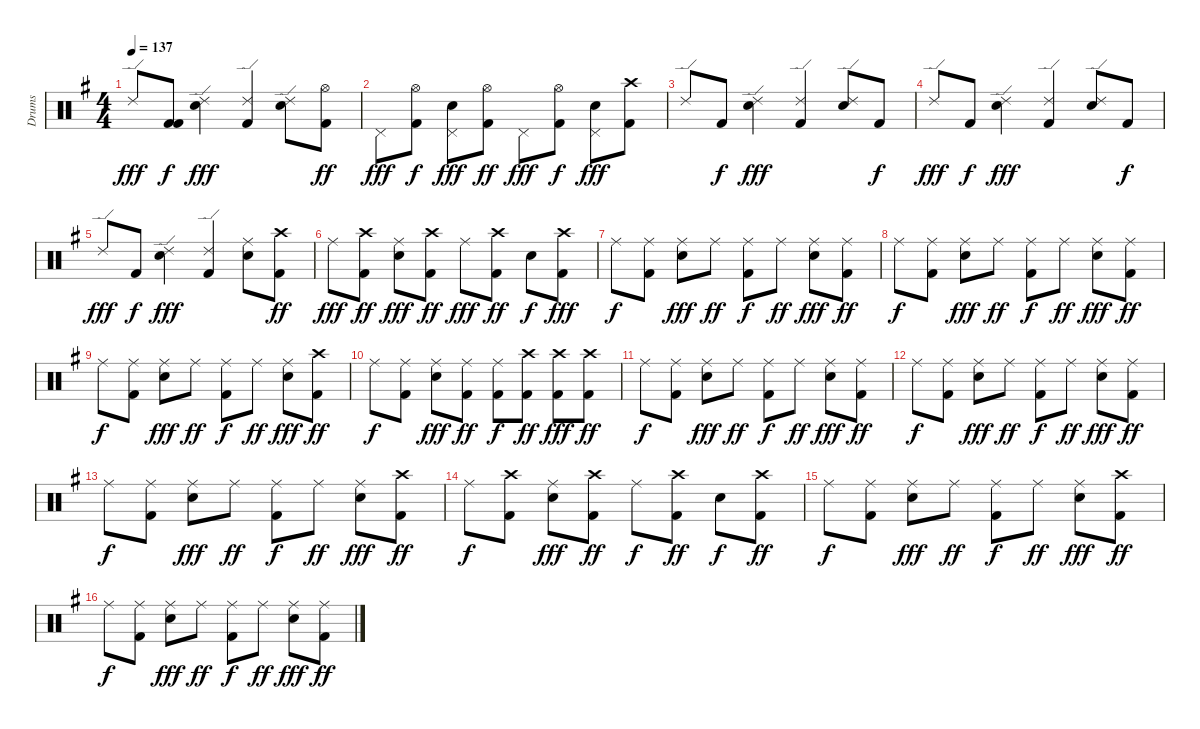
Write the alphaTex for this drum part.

\track ("Drums" "Drums") {instrument percussion}
\staff {score}
\articulation defaults
\ts (4 4)
\tempo 137
\clef neutral
\ks g "Ride (edge) 2".8{dy fff}
("Kick (hit) 2" "Kick (hit) 2").8{dy f} ("Ride (edge) 2" "Snare (hit) 2").4{dy fff} ("Ride (edge) 2" "Kick (hit) 2").4 ("Ride (edge) 2" "Snare (hit) 2").8 ("Hi-Hat (open)" "Kick (hit) 2").8{dy ff} |
"Pedal Hi-Hat (hit)".8{dy fff} ("Hi-Hat (open)" "Kick (hit) 2").8{dy f} ("Pedal Hi-Hat (hit)" "Snare (hit) 2").8{dy fff} ("Hi-Hat (open)" "Kick (hit) 2").8{dy ff} "Pedal Hi-Hat (hit)".8{dy fff} ("Hi-Hat (open)" "Kick (hit) 2").8{dy f} ("Pedal Hi-Hat (hit)" "Snare (hit) 2").8{dy fff} ("Crash high (hit)" "Kick (hit) 2").8 |
"Ride (edge) 2".8 "Kick (hit) 2".8{dy f} ("Ride (edge) 2" "Snare (hit) 2").4{dy fff} ("Ride (edge) 2" "Kick (hit) 2").4 ("Ride (edge) 2" "Snare (hit) 2").8 "Kick (hit) 2".8{dy f} |
"Ride (edge) 2".8{dy fff} "Kick (hit) 2".8{dy f} ("Ride (edge) 2" "Snare (hit) 2").4{dy fff} ("Ride (edge) 2" "Kick (hit) 2").4 ("Ride (edge) 2" "Snare (hit) 2").8 "Kick (hit) 2".8{dy f} |
"Ride (edge) 2".8{dy fff} "Kick (hit) 2".8{dy f} ("Ride (edge) 2" "Snare (hit) 2").4{dy fff} ("Ride (edge) 2" "Kick (hit) 2").4 ("Ride (middle)" "Snare (hit) 2").8 ("Crash high (hit)" "Kick (hit) 2").8{dy ff} |
"Ride (middle)".8{dy fff} ("Crash high (hit)" "Kick (hit) 2").8{dy ff} ("Ride (middle)" "Snare (hit) 2").8{dy fff} ("Crash high (hit)" "Kick (hit) 2").8{dy ff} "Ride (middle)".8{dy fff} ("Crash high (hit)" "Kick (hit) 2").8{dy ff} "Snare (hit) 2".8{dy f} ("Crash high (hit)" "Kick (hit) 2").8{dy fff} |
"Ride (middle)".8{dy f} ("Ride (middle)" "Kick (hit) 2").8 ("Ride (middle)" "Snare (hit) 2").8{dy fff} "Ride (middle)".8{dy ff} ("Ride (middle)" "Kick (hit) 2").8{dy f} "Ride (middle)".8{dy ff} ("Ride (middle)" "Snare (hit) 2").8{dy fff} ("Ride (middle)" "Kick (hit) 2").8{dy ff} |
"Ride (middle)".8{dy f} ("Ride (middle)" "Kick (hit) 2").8 ("Ride (middle)" "Snare (hit) 2").8{dy fff} "Ride (middle)".8{dy ff} ("Ride (middle)" "Kick (hit) 2").8{dy f} "Ride (middle)".8{dy ff} ("Ride (middle)" "Snare (hit) 2").8{dy fff} ("Ride (middle)" "Kick (hit) 2").8{dy ff} |
"Ride (middle)".8{dy f} ("Ride (middle)" "Kick (hit) 2").8 ("Ride (middle)" "Snare (hit) 2").8{dy fff} "Ride (middle)".8{dy ff} ("Ride (middle)" "Kick (hit) 2").8{dy f} "Ride (middle)".8{dy ff} ("Ride (middle)" "Snare (hit) 2").8{dy fff} ("Crash high (hit)" "Kick (hit) 2").8{dy ff} |
"Ride (middle)".8{dy f} ("Ride (middle)" "Kick (hit) 2").8 ("Ride (middle)" "Snare (hit) 2").8{dy fff} ("Ride (middle)" "Kick (hit) 2").8{dy ff} ("Ride (middle)" "Kick (hit) 2").8{dy f} ("Crash high (hit)" "Kick (hit) 2").8{dy ff} ("Crash high (hit)" "Kick (hit) 2").8{dy fff} ("Crash high (hit)" "Kick (hit) 2").8{dy ff} |
"Ride (middle)".8{dy f} ("Ride (middle)" "Kick (hit) 2").8 ("Ride (middle)" "Snare (hit) 2").8{dy fff} "Ride (middle)".8{dy ff} ("Ride (middle)" "Kick (hit) 2").8{dy f} "Ride (middle)".8{dy ff} ("Ride (middle)" "Snare (hit) 2").8{dy fff} ("Ride (middle)" "Kick (hit) 2").8{dy ff} |
"Ride (middle)".8{dy f} ("Ride (middle)" "Kick (hit) 2").8 ("Ride (middle)" "Snare (hit) 2").8{dy fff} "Ride (middle)".8{dy ff} ("Ride (middle)" "Kick (hit) 2").8{dy f} "Ride (middle)".8{dy ff} ("Ride (middle)" "Snare (hit) 2").8{dy fff} ("Ride (middle)" "Kick (hit) 2").8{dy ff} |
"Ride (middle)".8{dy f} ("Ride (middle)" "Kick (hit) 2").8 ("Ride (middle)" "Snare (hit) 2").8{dy fff} "Ride (middle)".8{dy ff} ("Ride (middle)" "Kick (hit) 2").8{dy f} "Ride (middle)".8{dy ff} ("Ride (middle)" "Snare (hit) 2").8{dy fff} ("Crash high (hit)" "Kick (hit) 2").8{dy ff} |
"Ride (middle)".8{dy f} ("Crash high (hit)" "Kick (hit) 2").8 ("Ride (middle)" "Snare (hit) 2").8{dy fff} ("Crash high (hit)" "Kick (hit) 2").8{dy ff} "Ride (middle)".8{dy f} ("Crash high (hit)" "Kick (hit) 2").8{dy ff} "Snare (hit) 2".8{dy f} ("Crash high (hit)" "Kick (hit) 2").8{dy ff} |
"Ride (middle)".8{dy f} ("Ride (middle)" "Kick (hit) 2").8 ("Ride (middle)" "Snare (hit) 2").8{dy fff} "Ride (middle)".8{dy ff} ("Ride (middle)" "Kick (hit) 2").8{dy f} "Ride (middle)".8{dy ff} ("Ride (middle)" "Snare (hit) 2").8{dy fff} ("Crash high (hit)" "Kick (hit) 2").8{dy ff} |
"Ride (middle)".8{dy f} ("Ride (middle)" "Kick (hit) 2").8 ("Ride (middle)" "Snare (hit) 2").8{dy fff} "Ride (middle)".8{dy ff} ("Ride (middle)" "Kick (hit) 2").8{dy f} "Ride (middle)".8{dy ff} ("Ride (middle)" "Snare (hit) 2").8{dy fff} ("Ride (middle)" "Kick (hit) 2").8{dy ff}
